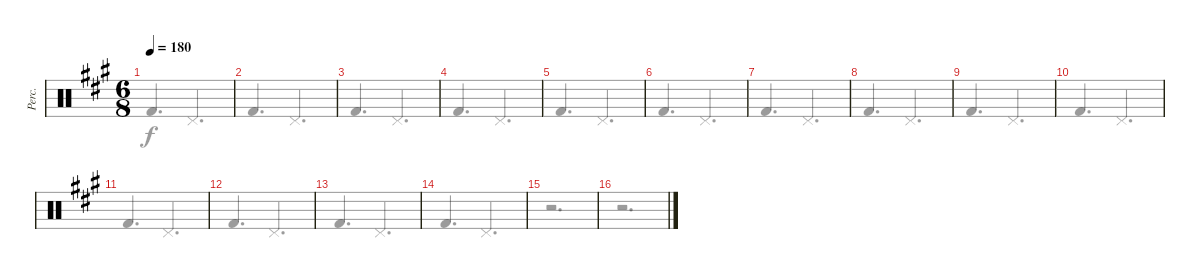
\defaultSystemsLayout 4
\bracketExtendMode groupsimilarinstruments
\otherSystemsTrackNameOrientation horizontal
\track ("Percussions" "Perc.") {instrument percussion}
\staff {score}
\articulation defaults
\voice
\ts (6 8)
\tempo 180
\clef neutral
\ks f#minor
|
|
|
|
|
|
|
|
|
|
|
|
|
|
|
\voice
\clef neutral
\ks f#minor "Kick (hit) 2"{acc forcenatural}.4{d dy f beam Up} "Pedal Hi-Hat (hit)"{acc forcenatural}.4{d beam Up}
|
"Kick (hit) 2"{acc forcenatural}.4{d beam Up} "Pedal Hi-Hat (hit)"{acc forcenatural}.4{d beam Up} |
"Kick (hit) 2"{acc forcenatural}.4{d beam Up} "Pedal Hi-Hat (hit)"{acc forcenatural}.4{d beam Up} |
"Kick (hit) 2"{acc forcenatural}.4{d beam Up} "Pedal Hi-Hat (hit)"{acc forcenatural}.4{d beam Up} |
"Kick (hit) 2"{acc forcenatural}.4{d beam Up} "Pedal Hi-Hat (hit)"{acc forcenatural}.4{d beam Up} |
"Kick (hit) 2"{acc forcenatural}.4{d beam Up} "Pedal Hi-Hat (hit)"{acc forcenatural}.4{d beam Up} |
"Kick (hit) 2"{acc forcenatural}.4{d beam Up} "Pedal Hi-Hat (hit)"{acc forcenatural}.4{d beam Up} |
"Kick (hit) 2"{acc forcenatural}.4{d beam Up} "Pedal Hi-Hat (hit)"{acc forcenatural}.4{d beam Up} |
"Kick (hit) 2"{acc forcenatural}.4{d beam Up} "Pedal Hi-Hat (hit)"{acc forcenatural}.4{d beam Up} |
"Kick (hit) 2"{acc forcenatural}.4{d beam Up} "Pedal Hi-Hat (hit)"{acc forcenatural}.4{d beam Up} |
"Kick (hit) 2"{acc forcenatural}.4{d beam Up} "Pedal Hi-Hat (hit)"{acc forcenatural}.4{d beam Up} |
"Kick (hit) 2"{acc forcenatural}.4{d beam Up} "Pedal Hi-Hat (hit)"{acc forcenatural}.4{d beam Up} |
"Kick (hit) 2"{acc forcenatural}.4{d beam Up} "Pedal Hi-Hat (hit)"{acc forcenatural}.4{d beam Up} |
"Kick (hit) 2"{acc forcenatural}.4{d beam Up} "Pedal Hi-Hat (hit)"{acc forcenatural}.4{d beam Up} |
r.2{d beam Down} |
r.2{d beam Down}
